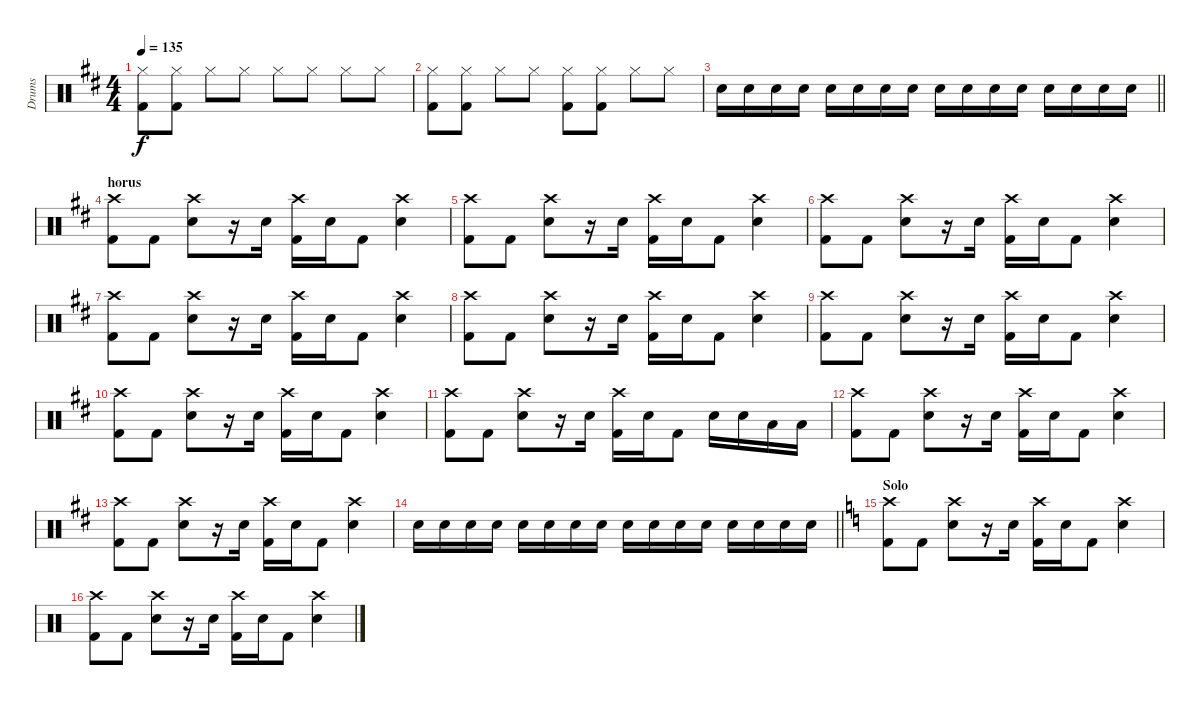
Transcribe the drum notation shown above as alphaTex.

\track ("Drums" "Drums") {instrument percussion}
\staff {score}
\articulation defaults
\ts (4 4)
\tempo 135
\clef neutral
\ks d
("Hi-Hat (closed)" "Kick (hit) 2").8{dy f} ("Hi-Hat (closed)" "Kick (hit) 2").8 "Hi-Hat (closed)".8 "Hi-Hat (closed)".8 "Hi-Hat (closed)".8 "Hi-Hat (closed)".8 "Hi-Hat (closed)".8 "Hi-Hat (closed)".8 |
("Hi-Hat (closed)" "Kick (hit) 2").8 ("Hi-Hat (closed)" "Kick (hit) 2").8 "Hi-Hat (closed)".8 "Hi-Hat (closed)".8 ("Hi-Hat (closed)" "Kick (hit) 2").8 ("Hi-Hat (closed)" "Kick (hit) 2").8 "Hi-Hat (closed)".8 "Hi-Hat (closed)".8 |
\barLineRight lightlight "Snare (hit) 2".16 "Snare (hit) 2".16 "Snare (hit) 2".16 "Snare (hit) 2".16 "Snare (hit) 2".16 "Snare (hit) 2".16 "Snare (hit) 2".16 "Snare (hit) 2".16 "Snare (hit) 2".16 "Snare (hit) 2".16 "Snare (hit) 2".16 "Snare (hit) 2".16 "Snare (hit) 2".16 "Snare (hit) 2".16 "Snare (hit) 2".16 "Snare (hit) 2".16
|
\section ("" "horus")
("Crash high (hit)" "Kick (hit) 2").8 "Kick (hit) 2".8 ("Crash high (hit)" "Snare (hit) 2").8 r.16 "Snare (hit) 2".16 ("Crash high (hit)" "Kick (hit) 2").16 "Snare (hit) 2".16 "Kick (hit) 2".8 ("Crash high (hit)" "Snare (hit) 2").4 |
("Crash high (hit)" "Kick (hit) 2").8 "Kick (hit) 2".8 ("Crash high (hit)" "Snare (hit) 2").8 r.16 "Snare (hit) 2".16 ("Crash high (hit)" "Kick (hit) 2").16 "Snare (hit) 2".16 "Kick (hit) 2".8 ("Crash high (hit)" "Snare (hit) 2").4 |
("Crash high (hit)" "Kick (hit) 2").8 "Kick (hit) 2".8 ("Crash high (hit)" "Snare (hit) 2").8 r.16 "Snare (hit) 2".16 ("Crash high (hit)" "Kick (hit) 2").16 "Snare (hit) 2".16 "Kick (hit) 2".8 ("Crash high (hit)" "Snare (hit) 2").4 |
("Crash high (hit)" "Kick (hit) 2").8 "Kick (hit) 2".8 ("Crash high (hit)" "Snare (hit) 2").8 r.16 "Snare (hit) 2".16 ("Crash high (hit)" "Kick (hit) 2").16 "Snare (hit) 2".16 "Kick (hit) 2".8 ("Crash high (hit)" "Snare (hit) 2").4 |
("Crash high (hit)" "Kick (hit) 2").8 "Kick (hit) 2".8 ("Crash high (hit)" "Snare (hit) 2").8 r.16 "Snare (hit) 2".16 ("Crash high (hit)" "Kick (hit) 2").16 "Snare (hit) 2".16 "Kick (hit) 2".8 ("Crash high (hit)" "Snare (hit) 2").4 |
("Crash high (hit)" "Kick (hit) 2").8 "Kick (hit) 2".8 ("Crash high (hit)" "Snare (hit) 2").8 r.16 "Snare (hit) 2".16 ("Crash high (hit)" "Kick (hit) 2").16 "Snare (hit) 2".16 "Kick (hit) 2".8 ("Crash high (hit)" "Snare (hit) 2").4 |
("Crash high (hit)" "Kick (hit) 2").8 "Kick (hit) 2".8 ("Crash high (hit)" "Snare (hit) 2").8 r.16 "Snare (hit) 2".16 ("Crash high (hit)" "Kick (hit) 2").16 "Snare (hit) 2".16 "Kick (hit) 2".8 ("Crash high (hit)" "Snare (hit) 2").4 |
("Crash high (hit)" "Kick (hit) 2").8 "Kick (hit) 2".8 ("Crash high (hit)" "Snare (hit) 2").8 r.16 "Snare (hit) 2".16 ("Crash high (hit)" "Kick (hit) 2").16 "Snare (hit) 2".16 "Kick (hit) 2".8 "Snare (hit) 2".16 "Snare (hit) 2".16 "Low Tom (hit)".16 "Low Tom (hit)".16 |
("Crash high (hit)" "Kick (hit) 2").8 "Kick (hit) 2".8 ("Crash high (hit)" "Snare (hit) 2").8 r.16 "Snare (hit) 2".16 ("Crash high (hit)" "Kick (hit) 2").16 "Snare (hit) 2".16 "Kick (hit) 2".8 ("Crash high (hit)" "Snare (hit) 2").4 |
("Crash high (hit)" "Kick (hit) 2").8 "Kick (hit) 2".8 ("Crash high (hit)" "Snare (hit) 2").8 r.16 "Snare (hit) 2".16 ("Crash high (hit)" "Kick (hit) 2").16 "Snare (hit) 2".16 "Kick (hit) 2".8 ("Crash high (hit)" "Snare (hit) 2").4 |
\barLineRight lightlight "Snare (hit) 2".16 "Snare (hit) 2".16 "Snare (hit) 2".16 "Snare (hit) 2".16 "Snare (hit) 2".16 "Snare (hit) 2".16 "Snare (hit) 2".16 "Snare (hit) 2".16 "Snare (hit) 2".16 "Snare (hit) 2".16 "Snare (hit) 2".16 "Snare (hit) 2".16 "Snare (hit) 2".16 "Snare (hit) 2".16 "Snare (hit) 2".16 "Snare (hit) 2".16
|
\section ("" "Solo")
\ks c
("Crash high (hit)" "Kick (hit) 2").8 "Kick (hit) 2".8 ("Crash high (hit)" "Snare (hit) 2").8 r.16 "Snare (hit) 2".16 ("Crash high (hit)" "Kick (hit) 2").16 "Snare (hit) 2".16 "Kick (hit) 2".8 ("Crash high (hit)" "Snare (hit) 2").4 |
("Crash high (hit)" "Kick (hit) 2").8 "Kick (hit) 2".8 ("Crash high (hit)" "Snare (hit) 2").8 r.16 "Snare (hit) 2".16 ("Crash high (hit)" "Kick (hit) 2").16 "Snare (hit) 2".16 "Kick (hit) 2".8 ("Crash high (hit)" "Snare (hit) 2").4
